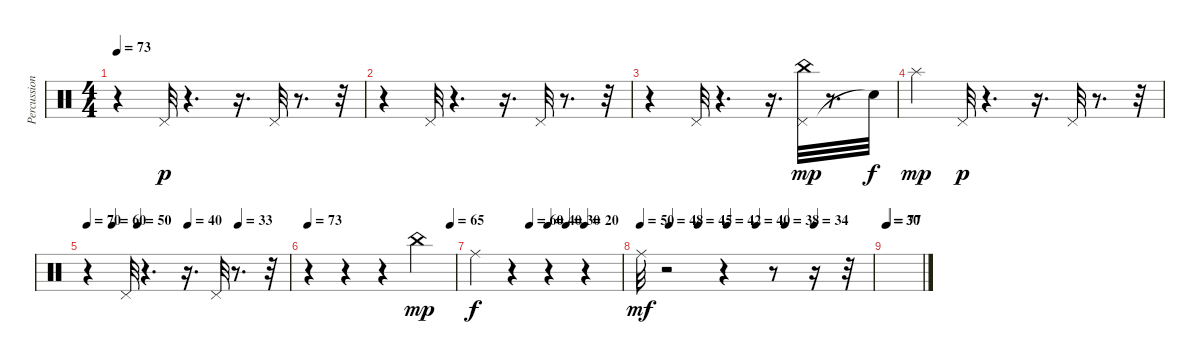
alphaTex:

\track ("Percussion" "Percussion") {instrument percussion}
\staff {score}
\articulation defaults
\ts (4 4)
\tempo 73
\clef neutral
\ks c
r.4{dy p} "Pedal Hi-Hat (hit)".32 r.4{d} r.16{d} "Pedal Hi-Hat (hit)".32 r.8{d} r.32 |
r.4 "Pedal Hi-Hat (hit)".32 r.4{d} r.16{d} "Pedal Hi-Hat (hit)".32 r.8{d} r.32 |
r.4 "Pedal Hi-Hat (hit)".32 r.4{d} r.16{d} ("Pedal Hi-Hat (hit)" "China (hit)").32{dy mp} r.8{d} "Snare (hit)"{t}.32{dy f} |
"Splash (hit)".4{dy mp} "Pedal Hi-Hat (hit)".32{dy p} r.4{d} r.16{d} "Pedal Hi-Hat (hit)".32 r.8{d} r.32 |
\tempo 70
\tempo (60 0.125)
\tempo (50 0.25)
\tempo (40 0.5)
\tempo (33 0.75)
r.4 "Pedal Hi-Hat (hit)".32 r.4{d} r.16{d} "Pedal Hi-Hat (hit)".32 r.8{d} r.32 |
\tempo 73
\tempo (65 0.96875)
r.4 r.4 r.4 "China (hit)".4{dy mp} |
\tempo (60 0.375)
\tempo (40 0.5)
\tempo (30 0.625)
\tempo (20 0.75)
"Ride (middle)".4{dy f} r.4 r.4 r.4 |
\tempo 50
\tempo (48 0.125)
\tempo (45 0.25)
\tempo (42 0.375)
\tempo (40 0.5)
\tempo (38 0.625)
\tempo (34 0.75)
"Ride (middle)".32{dy mf} r.2 r.4 r.8 r.16 r.32 |
\tempo 30
\tempo (77 0.03125)
